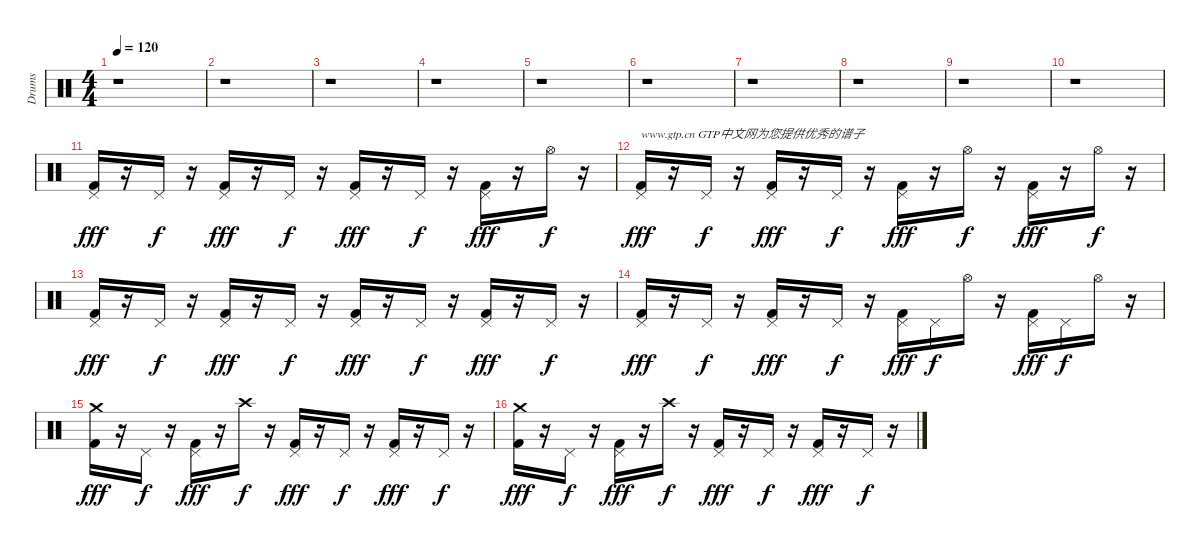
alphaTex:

\track ("Drums" "Drums") {instrument percussion}
\staff {score}
\articulation defaults
\ts (4 4)
\tempo 120
\clef neutral
\ks c
r.1{dy fff} |
r.1 |
r.1 |
r.1 |
r.1 |
r.1 |
r.1 |
r.1 |
r.1 |
r.1 |
("Kick (hit) 2" "Pedal Hi-Hat (hit)").16 r.16 "Pedal Hi-Hat (hit)".16{dy f} r.16 ("Kick (hit) 2" "Pedal Hi-Hat (hit)").16{dy fff} r.16 "Pedal Hi-Hat (hit)".16{dy f} r.16 ("Kick (hit) 2" "Pedal Hi-Hat (hit)").16{dy fff} r.16 "Pedal Hi-Hat (hit)".16{dy f} r.16 ("Kick (hit) 2" "Pedal Hi-Hat (hit)").16{dy fff} r.16 "Hi-Hat (open)".16{dy f} r.16 |
("Kick (hit) 2" "Pedal Hi-Hat (hit)").16{txt "www.gtp.cn GTP中文网为您提供优秀的谱子" dy fff} r.16 "Pedal Hi-Hat (hit)".16{dy f} r.16 ("Kick (hit) 2" "Pedal Hi-Hat (hit)").16{dy fff} r.16 "Pedal Hi-Hat (hit)".16{dy f} r.16 ("Kick (hit) 2" "Pedal Hi-Hat (hit)").16{dy fff} r.16 "Hi-Hat (open)".16{dy f} r.16 ("Kick (hit) 2" "Pedal Hi-Hat (hit)").16{dy fff} r.16 "Hi-Hat (open)".16{dy f} r.16 |
("Kick (hit) 2" "Pedal Hi-Hat (hit)").16{dy fff} r.16 "Pedal Hi-Hat (hit)".16{dy f} r.16 ("Kick (hit) 2" "Pedal Hi-Hat (hit)").16{dy fff} r.16 "Pedal Hi-Hat (hit)".16{dy f} r.16 ("Kick (hit) 2" "Pedal Hi-Hat (hit)").16{dy fff} r.16 "Pedal Hi-Hat (hit)".16{dy f} r.16 ("Kick (hit) 2" "Pedal Hi-Hat (hit)").16{dy fff} r.16 "Pedal Hi-Hat (hit)".16{dy f} r.16 |
("Kick (hit) 2" "Pedal Hi-Hat (hit)").16{dy fff} r.16 "Pedal Hi-Hat (hit)".16{dy f} r.16 ("Kick (hit) 2" "Pedal Hi-Hat (hit)").16{dy fff} r.16 "Pedal Hi-Hat (hit)".16{dy f} r.16 ("Kick (hit) 2" "Pedal Hi-Hat (hit)").16{dy fff} "Pedal Hi-Hat (hit)".16{dy f} "Hi-Hat (open)".16 r.16 ("Kick (hit) 2" "Pedal Hi-Hat (hit)").16{dy fff} "Pedal Hi-Hat (hit)".16{dy f} "Hi-Hat (open)".16 r.16 |
("Kick (hit) 2" "Crash medium (hit)").16{dy fff} r.16 "Pedal Hi-Hat (hit)".16{dy f} r.16 ("Kick (hit) 2" "Pedal Hi-Hat (hit)").16{dy fff} r.16 "Crash high (hit)".16{dy f} r.16 ("Kick (hit) 2" "Pedal Hi-Hat (hit)").16{dy fff} r.16 "Pedal Hi-Hat (hit)".16{dy f} r.16 ("Kick (hit) 2" "Pedal Hi-Hat (hit)").16{dy fff} r.16 "Pedal Hi-Hat (hit)".16{dy f} r.16 |
("Kick (hit) 2" "Crash medium (hit)").16{dy fff} r.16 "Pedal Hi-Hat (hit)".16{dy f} r.16 ("Kick (hit) 2" "Pedal Hi-Hat (hit)").16{dy fff} r.16 "Crash high (hit)".16{dy f} r.16 ("Kick (hit) 2" "Pedal Hi-Hat (hit)").16{dy fff} r.16 "Pedal Hi-Hat (hit)".16{dy f} r.16 ("Kick (hit) 2" "Pedal Hi-Hat (hit)").16{dy fff} r.16 "Pedal Hi-Hat (hit)".16{dy f} r.16
